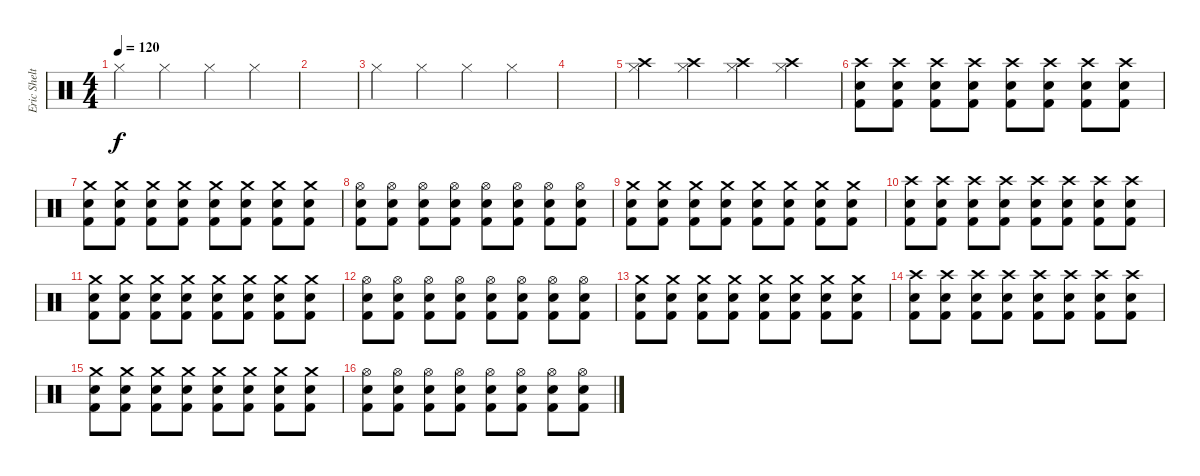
\track ("Eric Shelton" "Eric Shelt") {instrument percussion}
\staff {score}
\articulation defaults
\ts (4 4)
\tempo 120
\clef neutral
\ks c "Hi-Hat (closed)".4{dy f} "Hi-Hat (closed)".4 "Hi-Hat (closed)".4 "Hi-Hat (closed)".4
|
|
"Hi-Hat (closed)".4 "Hi-Hat (closed)".4 "Hi-Hat (closed)".4 "Hi-Hat (closed)".4 |
|
("Hi-Hat (closed)" "Crash high (hit)").4 ("Hi-Hat (closed)" "Crash high (hit)").4 ("Hi-Hat (closed)" "Crash high (hit)").4 ("Hi-Hat (closed)" "Crash high (hit)").4 |
("Kick (hit) 2" "Electric Snare (hit)" "Crash high (hit)").8 ("Kick (hit) 2" "Electric Snare (hit)" "Crash high (hit)").8 ("Kick (hit) 2" "Electric Snare (hit)" "Crash high (hit)").8 ("Kick (hit) 2" "Electric Snare (hit)" "Crash high (hit)").8 ("Kick (hit) 2" "Electric Snare (hit)" "Crash high (hit)").8 ("Kick (hit) 2" "Electric Snare (hit)" "Crash high (hit)").8 ("Kick (hit) 2" "Electric Snare (hit)" "Crash high (hit)").8 ("Kick (hit) 2" "Electric Snare (hit)" "Crash high (hit)").8 |
("Kick (hit) 2" "Electric Snare (hit)" "Crash medium (hit)").8 ("Kick (hit) 2" "Electric Snare (hit)" "Crash medium (hit)").8 ("Kick (hit) 2" "Electric Snare (hit)" "Crash medium (hit)").8 ("Kick (hit) 2" "Electric Snare (hit)" "Crash medium (hit)").8 ("Kick (hit) 2" "Electric Snare (hit)" "Crash medium (hit)").8 ("Kick (hit) 2" "Electric Snare (hit)" "Crash medium (hit)").8 ("Kick (hit) 2" "Electric Snare (hit)" "Crash medium (hit)").8 ("Kick (hit) 2" "Electric Snare (hit)" "Crash medium (hit)").8 |
("Kick (hit) 2" "Electric Snare (hit)" "Hi-Hat (open)").8 ("Kick (hit) 2" "Electric Snare (hit)" "Hi-Hat (open)").8 ("Kick (hit) 2" "Electric Snare (hit)" "Hi-Hat (open)").8 ("Kick (hit) 2" "Electric Snare (hit)" "Hi-Hat (open)").8 ("Kick (hit) 2" "Electric Snare (hit)" "Hi-Hat (open)").8 ("Kick (hit) 2" "Electric Snare (hit)" "Hi-Hat (open)").8 ("Kick (hit) 2" "Electric Snare (hit)" "Hi-Hat (open)").8 ("Kick (hit) 2" "Electric Snare (hit)" "Hi-Hat (open)").8 |
("Kick (hit) 2" "Electric Snare (hit)" "Crash medium (hit)").8 ("Kick (hit) 2" "Electric Snare (hit)" "Crash medium (hit)").8 ("Kick (hit) 2" "Electric Snare (hit)" "Crash medium (hit)").8 ("Kick (hit) 2" "Electric Snare (hit)" "Crash medium (hit)").8 ("Kick (hit) 2" "Electric Snare (hit)" "Crash medium (hit)").8 ("Kick (hit) 2" "Electric Snare (hit)" "Crash medium (hit)").8 ("Kick (hit) 2" "Electric Snare (hit)" "Crash medium (hit)").8 ("Kick (hit) 2" "Electric Snare (hit)" "Crash medium (hit)").8 |
("Kick (hit) 2" "Electric Snare (hit)" "Crash high (hit)").8 ("Kick (hit) 2" "Electric Snare (hit)" "Crash high (hit)").8 ("Kick (hit) 2" "Electric Snare (hit)" "Crash high (hit)").8 ("Kick (hit) 2" "Electric Snare (hit)" "Crash high (hit)").8 ("Kick (hit) 2" "Electric Snare (hit)" "Crash high (hit)").8 ("Kick (hit) 2" "Electric Snare (hit)" "Crash high (hit)").8 ("Kick (hit) 2" "Electric Snare (hit)" "Crash high (hit)").8 ("Kick (hit) 2" "Electric Snare (hit)" "Crash high (hit)").8 |
("Kick (hit) 2" "Electric Snare (hit)" "Crash medium (hit)").8 ("Kick (hit) 2" "Electric Snare (hit)" "Crash medium (hit)").8 ("Kick (hit) 2" "Electric Snare (hit)" "Crash medium (hit)").8 ("Kick (hit) 2" "Electric Snare (hit)" "Crash medium (hit)").8 ("Kick (hit) 2" "Electric Snare (hit)" "Crash medium (hit)").8 ("Kick (hit) 2" "Electric Snare (hit)" "Crash medium (hit)").8 ("Kick (hit) 2" "Electric Snare (hit)" "Crash medium (hit)").8 ("Kick (hit) 2" "Electric Snare (hit)" "Crash medium (hit)").8 |
("Kick (hit) 2" "Electric Snare (hit)" "Hi-Hat (open)").8 ("Kick (hit) 2" "Electric Snare (hit)" "Hi-Hat (open)").8 ("Kick (hit) 2" "Electric Snare (hit)" "Hi-Hat (open)").8 ("Kick (hit) 2" "Electric Snare (hit)" "Hi-Hat (open)").8 ("Kick (hit) 2" "Electric Snare (hit)" "Hi-Hat (open)").8 ("Kick (hit) 2" "Electric Snare (hit)" "Hi-Hat (open)").8 ("Kick (hit) 2" "Electric Snare (hit)" "Hi-Hat (open)").8 ("Kick (hit) 2" "Electric Snare (hit)" "Hi-Hat (open)").8 |
("Kick (hit) 2" "Electric Snare (hit)" "Crash medium (hit)").8 ("Kick (hit) 2" "Electric Snare (hit)" "Crash medium (hit)").8 ("Kick (hit) 2" "Electric Snare (hit)" "Crash medium (hit)").8 ("Kick (hit) 2" "Electric Snare (hit)" "Crash medium (hit)").8 ("Kick (hit) 2" "Electric Snare (hit)" "Crash medium (hit)").8 ("Kick (hit) 2" "Electric Snare (hit)" "Crash medium (hit)").8 ("Kick (hit) 2" "Electric Snare (hit)" "Crash medium (hit)").8 ("Kick (hit) 2" "Electric Snare (hit)" "Crash medium (hit)").8 |
("Kick (hit) 2" "Electric Snare (hit)" "Crash high (hit)").8 ("Kick (hit) 2" "Electric Snare (hit)" "Crash high (hit)").8 ("Kick (hit) 2" "Electric Snare (hit)" "Crash high (hit)").8 ("Kick (hit) 2" "Electric Snare (hit)" "Crash high (hit)").8 ("Kick (hit) 2" "Electric Snare (hit)" "Crash high (hit)").8 ("Kick (hit) 2" "Electric Snare (hit)" "Crash high (hit)").8 ("Kick (hit) 2" "Electric Snare (hit)" "Crash high (hit)").8 ("Kick (hit) 2" "Electric Snare (hit)" "Crash high (hit)").8 |
("Kick (hit) 2" "Electric Snare (hit)" "Crash medium (hit)").8 ("Kick (hit) 2" "Electric Snare (hit)" "Crash medium (hit)").8 ("Kick (hit) 2" "Electric Snare (hit)" "Crash medium (hit)").8 ("Kick (hit) 2" "Electric Snare (hit)" "Crash medium (hit)").8 ("Kick (hit) 2" "Electric Snare (hit)" "Crash medium (hit)").8 ("Kick (hit) 2" "Electric Snare (hit)" "Crash medium (hit)").8 ("Kick (hit) 2" "Electric Snare (hit)" "Crash medium (hit)").8 ("Kick (hit) 2" "Electric Snare (hit)" "Crash medium (hit)").8 |
("Kick (hit) 2" "Electric Snare (hit)" "Hi-Hat (open)").8 ("Kick (hit) 2" "Electric Snare (hit)" "Hi-Hat (open)").8 ("Kick (hit) 2" "Electric Snare (hit)" "Hi-Hat (open)").8 ("Kick (hit) 2" "Electric Snare (hit)" "Hi-Hat (open)").8 ("Kick (hit) 2" "Electric Snare (hit)" "Hi-Hat (open)").8 ("Kick (hit) 2" "Electric Snare (hit)" "Hi-Hat (open)").8 ("Kick (hit) 2" "Electric Snare (hit)" "Hi-Hat (open)").8 ("Kick (hit) 2" "Electric Snare (hit)" "Hi-Hat (open)").8
